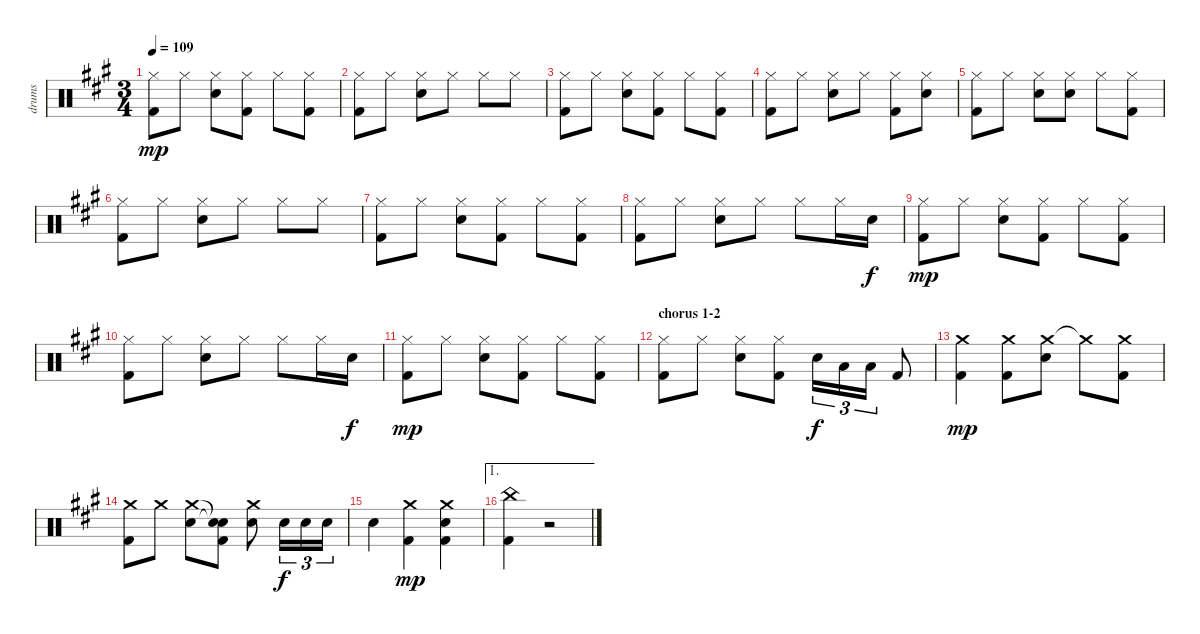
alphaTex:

\track ("drums" "drums") {instrument percussion}
\staff {score}
\articulation defaults
\ts (3 4)
\tempo 109
\clef neutral
\ks a
("Hi-Hat (closed)" "Kick (hit) 2").8{dy mp} "Hi-Hat (closed)".8 ("Hi-Hat (closed)" "Snare (hit) 2").8 ("Hi-Hat (closed)" "Kick (hit) 2").8 "Hi-Hat (closed)".8 ("Hi-Hat (closed)" "Kick (hit) 2").8 |
("Hi-Hat (closed)" "Kick (hit) 2").8 "Hi-Hat (closed)".8 ("Hi-Hat (closed)" "Snare (hit) 2").8 "Hi-Hat (closed)".8 "Hi-Hat (closed)".8 "Hi-Hat (closed)".8 |
("Hi-Hat (closed)" "Kick (hit) 2").8 "Hi-Hat (closed)".8 ("Hi-Hat (closed)" "Snare (hit) 2").8 ("Hi-Hat (closed)" "Kick (hit) 2").8 "Hi-Hat (closed)".8 ("Hi-Hat (closed)" "Kick (hit) 2").8 |
("Hi-Hat (closed)" "Kick (hit) 2").8 "Hi-Hat (closed)".8 ("Hi-Hat (closed)" "Snare (hit) 2").8 "Hi-Hat (closed)".8 ("Hi-Hat (closed)" "Kick (hit) 2").8 ("Hi-Hat (closed)" "Snare (hit) 2").8 |
("Hi-Hat (closed)" "Kick (hit) 2").8 "Hi-Hat (closed)".8 ("Hi-Hat (closed)" "Snare (hit) 2").8 ("Hi-Hat (closed)" "Snare (hit) 2").8 "Hi-Hat (closed)".8 ("Hi-Hat (closed)" "Kick (hit) 2").8 |
("Hi-Hat (closed)" "Kick (hit) 2").8 "Hi-Hat (closed)".8 ("Hi-Hat (closed)" "Snare (hit) 2").8 "Hi-Hat (closed)".8 "Hi-Hat (closed)".8 "Hi-Hat (closed)".8 |
("Hi-Hat (closed)" "Kick (hit) 2").8 "Hi-Hat (closed)".8 ("Hi-Hat (closed)" "Snare (hit) 2").8 ("Hi-Hat (closed)" "Kick (hit) 2").8 "Hi-Hat (closed)".8 ("Hi-Hat (closed)" "Kick (hit) 2").8 |
("Hi-Hat (closed)" "Kick (hit) 2").8 "Hi-Hat (closed)".8 ("Hi-Hat (closed)" "Snare (hit) 2").8 "Hi-Hat (closed)".8 "Hi-Hat (closed)".8 "Hi-Hat (closed)".16 "Snare (hit) 2".16{dy f} |
("Hi-Hat (closed)" "Kick (hit) 2").8{dy mp} "Hi-Hat (closed)".8 ("Hi-Hat (closed)" "Snare (hit) 2").8 ("Hi-Hat (closed)" "Kick (hit) 2").8 "Hi-Hat (closed)".8 ("Hi-Hat (closed)" "Kick (hit) 2").8 |
("Hi-Hat (closed)" "Kick (hit) 2").8 "Hi-Hat (closed)".8 ("Hi-Hat (closed)" "Snare (hit) 2").8 "Hi-Hat (closed)".8 "Hi-Hat (closed)".8 "Hi-Hat (closed)".16 "Snare (hit) 2".16{dy f} |
("Hi-Hat (closed)" "Kick (hit) 2").8{dy mp} "Hi-Hat (closed)".8 ("Hi-Hat (closed)" "Snare (hit) 2").8 ("Hi-Hat (closed)" "Kick (hit) 2").8 "Hi-Hat (closed)".8 ("Hi-Hat (closed)" "Kick (hit) 2").8 |
\section ("" "chorus 1-2")
("Hi-Hat (closed)" "Kick (hit) 2").8 "Hi-Hat (closed)".8 ("Hi-Hat (closed)" "Snare (hit) 2").8 ("Hi-Hat (closed)" "Kick (hit) 2").8 "Snare (hit) 2".16{tu (3 2) dy f} "Low Tom (hit)".16{tu (3 2)} "Low Tom (hit)".16{tu (3 2)} "Kick (hit) 2".8 |
("Crash medium (hit)" "Kick (hit) 2").4{dy mp} ("Crash medium (hit)" "Kick (hit) 2").8 ("Crash medium (hit)" "Snare (hit) 2").8 "Crash medium (hit)"{t}.8 ("Crash medium (hit)" "Kick (hit) 2").8 |
("Crash medium (hit)" "Kick (hit) 2").8 "Crash medium (hit)".8 ("Crash medium (hit)" "Snare (hit) 2").8 ("Snare (hit)"{t} "Snare (hit)"{t} "Kick (hit) 2").8 ("Crash medium (hit)" "Snare (hit) 2").8 "Snare (hit) 2".16{tu (3 2) dy f} "Snare (hit) 2".16{tu (3 2)} "Snare (hit) 2".16{tu (3 2)} |
"Snare (hit) 2".4 ("Crash medium (hit)" "Kick (hit) 2").4{dy mp} ("Crash medium (hit)" "Snare (hit) 2" "Kick (hit) 2").4 |
\ae 1
("China (hit)" "Kick (hit) 2").4 r.2
